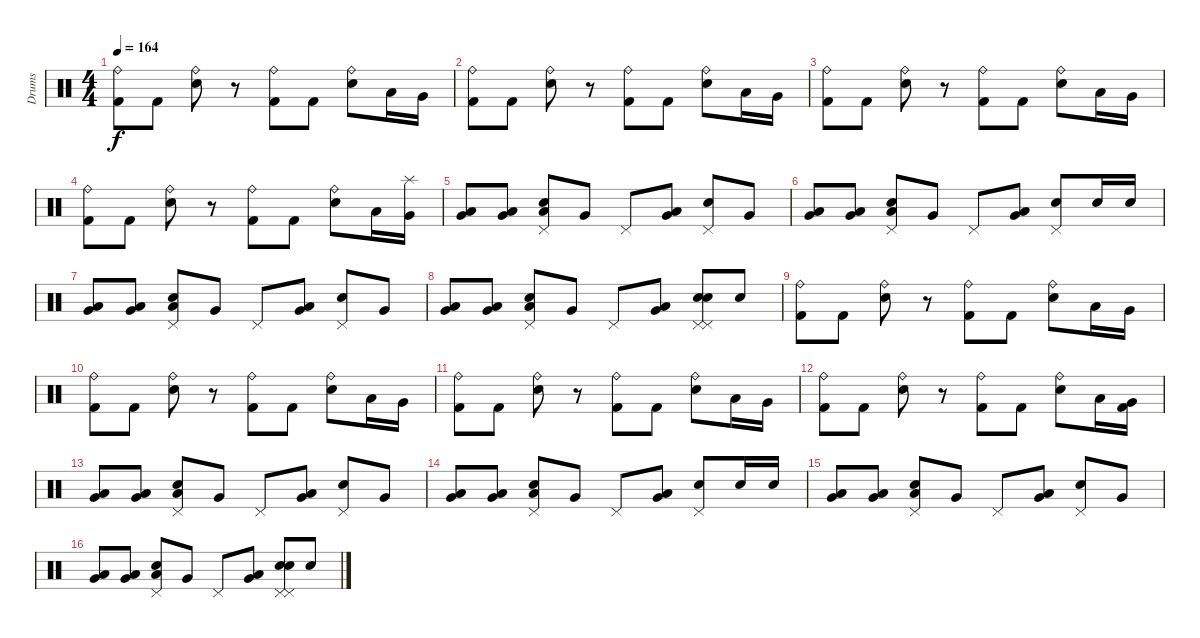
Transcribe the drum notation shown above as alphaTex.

\track ("Drums" "Drums") {instrument percussion}
\staff {score}
\articulation defaults
\ts (4 4)
\tempo 164
\clef neutral
\ks c
("Ride (bell)" "Kick (hit) 2").8{dy f} "Kick (hit) 2".8 ("Ride (bell)" "Electric Snare (hit)").8 r.8 ("Ride (bell)" "Kick (hit) 2").8 "Kick (hit) 2".8 ("Ride (bell)" "Electric Snare (hit)").8 "Low Tom (hit)".16 "Very Low Tom (hit)".16 |
("Ride (bell)" "Kick (hit) 2").8 "Kick (hit) 2".8 ("Ride (bell)" "Electric Snare (hit)").8 r.8 ("Ride (bell)" "Kick (hit) 2").8 "Kick (hit) 2".8 ("Ride (bell)" "Electric Snare (hit)").8 "Low Tom (hit)".16 "Very Low Tom (hit)".16 |
("Ride (bell)" "Kick (hit) 2").8 "Kick (hit) 2".8 ("Ride (bell)" "Electric Snare (hit)").8 r.8 ("Ride (bell)" "Kick (hit) 2").8 "Kick (hit) 2".8 ("Ride (bell)" "Electric Snare (hit)").8 "Low Tom (hit)".16 "Very Low Tom (hit)".16 |
("Ride (bell)" "Kick (hit) 2").8 "Kick (hit) 2".8 ("Ride (bell)" "Electric Snare (hit)").8 r.8 ("Ride (bell)" "Kick (hit) 2").8 "Kick (hit) 2".8 ("Ride (bell)" "Electric Snare (hit)").8 "Low Tom (hit)".16 ("Very Low Tom (hit)" "Splash (hit)").16 |
("Very Low Tom (hit)" "Low Floor Tom (hit)").8 ("Very Low Tom (hit)" "Low Floor Tom (hit)").8 ("Electric Snare (hit)" "Pedal Hi-Hat (hit)" "Low Floor Tom (hit)").8 "Very Low Tom (hit)".8 "Pedal Hi-Hat (hit)".8 ("Very Low Tom (hit)" "Low Floor Tom (hit)").8 ("Electric Snare (hit)" "Pedal Hi-Hat (hit)").8 "Very Low Tom (hit)".8 |
("Very Low Tom (hit)" "Low Floor Tom (hit)").8 ("Very Low Tom (hit)" "Low Floor Tom (hit)").8 ("Electric Snare (hit)" "Pedal Hi-Hat (hit)" "Low Floor Tom (hit)").8 "Very Low Tom (hit)".8 "Pedal Hi-Hat (hit)".8 ("Very Low Tom (hit)" "Low Floor Tom (hit)").8 ("Electric Snare (hit)" "Pedal Hi-Hat (hit)").8 "Electric Snare (hit)".16 "Electric Snare (hit)".16 |
("Very Low Tom (hit)" "Low Floor Tom (hit)").8 ("Very Low Tom (hit)" "Low Floor Tom (hit)").8 ("Electric Snare (hit)" "Pedal Hi-Hat (hit)" "Low Floor Tom (hit)").8 "Very Low Tom (hit)".8 "Pedal Hi-Hat (hit)".8 ("Very Low Tom (hit)" "Low Floor Tom (hit)").8 ("Electric Snare (hit)" "Pedal Hi-Hat (hit)").8 "Very Low Tom (hit)".8 |
("Very Low Tom (hit)" "Low Floor Tom (hit)").8 ("Very Low Tom (hit)" "Low Floor Tom (hit)").8 ("Electric Snare (hit)" "Pedal Hi-Hat (hit)" "Low Floor Tom (hit)").8 "Very Low Tom (hit)".8 "Pedal Hi-Hat (hit)".8 ("Very Low Tom (hit)" "Low Floor Tom (hit)").8 ("Electric Snare (hit)" "Pedal Hi-Hat (hit)" "Electric Snare (hit)" "Pedal Hi-Hat (hit)").8 "Electric Snare (hit)".8 |
("Ride (bell)" "Kick (hit) 2").8 "Kick (hit) 2".8 ("Ride (bell)" "Electric Snare (hit)").8 r.8 ("Ride (bell)" "Kick (hit) 2").8 "Kick (hit) 2".8 ("Ride (bell)" "Electric Snare (hit)").8 "Low Tom (hit)".16 "Very Low Tom (hit)".16 |
("Ride (bell)" "Kick (hit) 2").8 "Kick (hit) 2".8 ("Ride (bell)" "Electric Snare (hit)").8 r.8 ("Ride (bell)" "Kick (hit) 2").8 "Kick (hit) 2".8 ("Ride (bell)" "Electric Snare (hit)").8 "Low Tom (hit)".16 "Very Low Tom (hit)".16 |
("Ride (bell)" "Kick (hit) 2").8 "Kick (hit) 2".8 ("Ride (bell)" "Electric Snare (hit)").8 r.8 ("Ride (bell)" "Kick (hit) 2").8 "Kick (hit) 2".8 ("Ride (bell)" "Electric Snare (hit)").8 "Low Tom (hit)".16 "Very Low Tom (hit)".16 |
("Ride (bell)" "Kick (hit) 2").8 "Kick (hit) 2".8 ("Ride (bell)" "Electric Snare (hit)").8 r.8 ("Ride (bell)" "Kick (hit) 2").8 "Kick (hit) 2".8 ("Ride (bell)" "Electric Snare (hit)").8 "Low Tom (hit)".16 ("Very Low Tom (hit)" "Kick (hit) 2").16 |
("Very Low Tom (hit)" "Low Floor Tom (hit)").8 ("Very Low Tom (hit)" "Low Floor Tom (hit)").8 ("Electric Snare (hit)" "Pedal Hi-Hat (hit)" "Low Floor Tom (hit)").8 "Very Low Tom (hit)".8 "Pedal Hi-Hat (hit)".8 ("Very Low Tom (hit)" "Low Floor Tom (hit)").8 ("Electric Snare (hit)" "Pedal Hi-Hat (hit)").8 "Very Low Tom (hit)".8 |
("Very Low Tom (hit)" "Low Floor Tom (hit)").8 ("Very Low Tom (hit)" "Low Floor Tom (hit)").8 ("Electric Snare (hit)" "Pedal Hi-Hat (hit)" "Low Floor Tom (hit)").8 "Very Low Tom (hit)".8 "Pedal Hi-Hat (hit)".8 ("Very Low Tom (hit)" "Low Floor Tom (hit)").8 ("Electric Snare (hit)" "Pedal Hi-Hat (hit)").8 "Electric Snare (hit)".16 "Electric Snare (hit)".16 |
("Very Low Tom (hit)" "Low Floor Tom (hit)").8 ("Very Low Tom (hit)" "Low Floor Tom (hit)").8 ("Electric Snare (hit)" "Pedal Hi-Hat (hit)" "Low Floor Tom (hit)").8 "Very Low Tom (hit)".8 "Pedal Hi-Hat (hit)".8 ("Very Low Tom (hit)" "Low Floor Tom (hit)").8 ("Electric Snare (hit)" "Pedal Hi-Hat (hit)").8 "Very Low Tom (hit)".8 |
("Very Low Tom (hit)" "Low Floor Tom (hit)").8 ("Very Low Tom (hit)" "Low Floor Tom (hit)").8 ("Electric Snare (hit)" "Pedal Hi-Hat (hit)" "Low Floor Tom (hit)").8 "Very Low Tom (hit)".8 "Pedal Hi-Hat (hit)".8 ("Very Low Tom (hit)" "Low Floor Tom (hit)").8 ("Electric Snare (hit)" "Pedal Hi-Hat (hit)" "Electric Snare (hit)" "Pedal Hi-Hat (hit)").8 "Electric Snare (hit)".8
